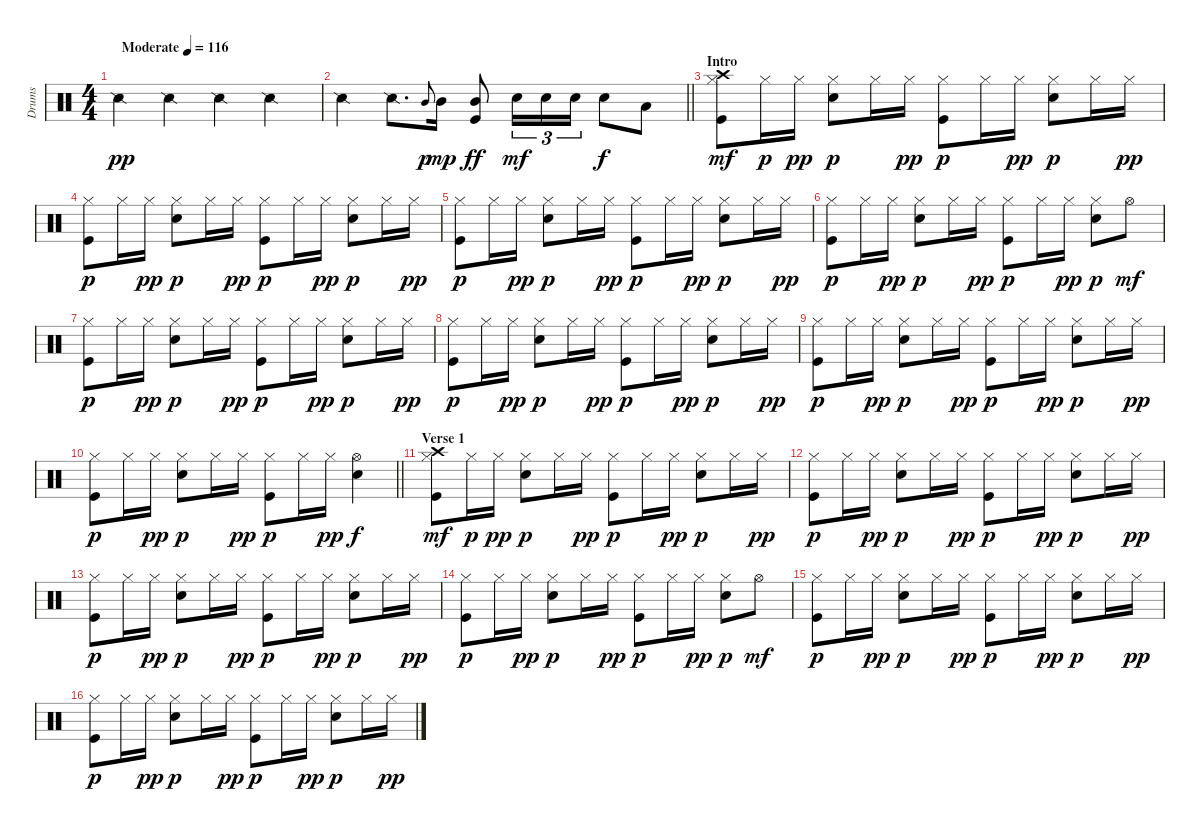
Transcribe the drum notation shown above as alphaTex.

\track ("Drums" "Drums") {instrument percussion}
\staff {score}
\articulation defaults
\ts (4 4)
\tempo (116 "Moderate")
\clef neutral
\ks c "Snare (side stick) 2".4{dy pp} "Snare (side stick) 2".4 "Snare (side stick) 2".4 "Snare (side stick) 2".4
|
\barLineRight lightlight "Snare (side stick) 2".4 "Snare (side stick) 2".8{d} "Mid Tom (hit)".8{gr onbeat dy p} "Mid Tom (hit)".16{dy mp}
("Mid Tom (hit)" "Kick (hit)").8{dy ff} "Snare (hit) 2".16{tu (3 2) dy mf} "Snare (hit) 2".16{tu (3 2)} "Snare (hit) 2".16{tu (3 2)} "Snare (hit) 2".8{dy f} "Low Tom (hit)".8 |
\section ("" "Intro")
("Hi-Hat (closed)" "Crash high (hit)" "Kick (hit)").8{dy mf} "Hi-Hat (closed)".16{dy p} "Hi-Hat (closed)".16{dy pp} ("Hi-Hat (closed)" "Snare (hit) 2").8{dy p} "Hi-Hat (closed)".16 "Hi-Hat (closed)".16{dy pp} ("Hi-Hat (closed)" "Kick (hit)").8{dy p} "Hi-Hat (closed)".16 "Hi-Hat (closed)".16{dy pp} ("Hi-Hat (closed)" "Snare (hit) 2").8{dy p} "Hi-Hat (closed)".16 "Hi-Hat (closed)".16{dy pp} |
("Hi-Hat (closed)" "Kick (hit)").8{dy p} "Hi-Hat (closed)".16 "Hi-Hat (closed)".16{dy pp} ("Hi-Hat (closed)" "Snare (hit) 2").8{dy p} "Hi-Hat (closed)".16 "Hi-Hat (closed)".16{dy pp} ("Hi-Hat (closed)" "Kick (hit)").8{dy p} "Hi-Hat (closed)".16 "Hi-Hat (closed)".16{dy pp} ("Hi-Hat (closed)" "Snare (hit) 2").8{dy p} "Hi-Hat (closed)".16 "Hi-Hat (closed)".16{dy pp} |
("Hi-Hat (closed)" "Kick (hit)").8{dy p} "Hi-Hat (closed)".16 "Hi-Hat (closed)".16{dy pp} ("Hi-Hat (closed)" "Snare (hit) 2").8{dy p} "Hi-Hat (closed)".16 "Hi-Hat (closed)".16{dy pp} ("Hi-Hat (closed)" "Kick (hit)").8{dy p} "Hi-Hat (closed)".16 "Hi-Hat (closed)".16{dy pp} ("Hi-Hat (closed)" "Snare (hit) 2").8{dy p} "Hi-Hat (closed)".16 "Hi-Hat (closed)".16{dy pp} |
("Hi-Hat (closed)" "Kick (hit)").8{dy p} "Hi-Hat (closed)".16 "Hi-Hat (closed)".16{dy pp} ("Hi-Hat (closed)" "Snare (hit) 2").8{dy p} "Hi-Hat (closed)".16 "Hi-Hat (closed)".16{dy pp} ("Hi-Hat (closed)" "Kick (hit)").8{dy p} "Hi-Hat (closed)".16 "Hi-Hat (closed)".16{dy pp} ("Hi-Hat (closed)" "Snare (hit) 2").8{dy p} "Hi-Hat (open)".8{dy mf} |
("Hi-Hat (closed)" "Kick (hit)").8{dy p} "Hi-Hat (closed)".16 "Hi-Hat (closed)".16{dy pp} ("Hi-Hat (closed)" "Snare (hit) 2").8{dy p} "Hi-Hat (closed)".16 "Hi-Hat (closed)".16{dy pp} ("Hi-Hat (closed)" "Kick (hit)").8{dy p} "Hi-Hat (closed)".16 "Hi-Hat (closed)".16{dy pp} ("Hi-Hat (closed)" "Snare (hit) 2").8{dy p} "Hi-Hat (closed)".16 "Hi-Hat (closed)".16{dy pp} |
("Hi-Hat (closed)" "Kick (hit)").8{dy p} "Hi-Hat (closed)".16 "Hi-Hat (closed)".16{dy pp} ("Hi-Hat (closed)" "Snare (hit) 2").8{dy p} "Hi-Hat (closed)".16 "Hi-Hat (closed)".16{dy pp} ("Hi-Hat (closed)" "Kick (hit)").8{dy p} "Hi-Hat (closed)".16 "Hi-Hat (closed)".16{dy pp} ("Hi-Hat (closed)" "Snare (hit) 2").8{dy p} "Hi-Hat (closed)".16 "Hi-Hat (closed)".16{dy pp} |
("Hi-Hat (closed)" "Kick (hit)").8{dy p} "Hi-Hat (closed)".16 "Hi-Hat (closed)".16{dy pp} ("Hi-Hat (closed)" "Snare (hit) 2").8{dy p} "Hi-Hat (closed)".16 "Hi-Hat (closed)".16{dy pp} ("Hi-Hat (closed)" "Kick (hit)").8{dy p} "Hi-Hat (closed)".16 "Hi-Hat (closed)".16{dy pp} ("Hi-Hat (closed)" "Snare (hit) 2").8{dy p} "Hi-Hat (closed)".16 "Hi-Hat (closed)".16{dy pp} |
\barLineRight lightlight
("Hi-Hat (closed)" "Kick (hit)").8{dy p} "Hi-Hat (closed)".16 "Hi-Hat (closed)".16{dy pp} ("Hi-Hat (closed)" "Snare (hit) 2").8{dy p} "Hi-Hat (closed)".16 "Hi-Hat (closed)".16{dy pp} ("Hi-Hat (closed)" "Kick (hit)").8{dy p} "Hi-Hat (closed)".16 "Hi-Hat (closed)".16{dy pp} ("Hi-Hat (open)" "Snare (hit) 2").4{dy f} |
\section ("" "Verse 1")
("Hi-Hat (closed)" "Crash high (hit)" "Kick (hit)").8{dy mf} "Hi-Hat (closed)".16{dy p} "Hi-Hat (closed)".16{dy pp} ("Hi-Hat (closed)" "Snare (hit) 2").8{dy p} "Hi-Hat (closed)".16 "Hi-Hat (closed)".16{dy pp} ("Hi-Hat (closed)" "Kick (hit)").8{dy p} "Hi-Hat (closed)".16 "Hi-Hat (closed)".16{dy pp} ("Hi-Hat (closed)" "Snare (hit) 2").8{dy p} "Hi-Hat (closed)".16 "Hi-Hat (closed)".16{dy pp} |
("Hi-Hat (closed)" "Kick (hit)").8{dy p} "Hi-Hat (closed)".16 "Hi-Hat (closed)".16{dy pp} ("Hi-Hat (closed)" "Snare (hit) 2").8{dy p} "Hi-Hat (closed)".16 "Hi-Hat (closed)".16{dy pp} ("Hi-Hat (closed)" "Kick (hit)").8{dy p} "Hi-Hat (closed)".16 "Hi-Hat (closed)".16{dy pp} ("Hi-Hat (closed)" "Snare (hit) 2").8{dy p} "Hi-Hat (closed)".16 "Hi-Hat (closed)".16{dy pp} |
("Hi-Hat (closed)" "Kick (hit)").8{dy p} "Hi-Hat (closed)".16 "Hi-Hat (closed)".16{dy pp} ("Hi-Hat (closed)" "Snare (hit) 2").8{dy p} "Hi-Hat (closed)".16 "Hi-Hat (closed)".16{dy pp} ("Hi-Hat (closed)" "Kick (hit)").8{dy p} "Hi-Hat (closed)".16 "Hi-Hat (closed)".16{dy pp} ("Hi-Hat (closed)" "Snare (hit) 2").8{dy p} "Hi-Hat (closed)".16 "Hi-Hat (closed)".16{dy pp} |
("Hi-Hat (closed)" "Kick (hit)").8{dy p} "Hi-Hat (closed)".16 "Hi-Hat (closed)".16{dy pp} ("Hi-Hat (closed)" "Snare (hit) 2").8{dy p} "Hi-Hat (closed)".16 "Hi-Hat (closed)".16{dy pp} ("Hi-Hat (closed)" "Kick (hit)").8{dy p} "Hi-Hat (closed)".16 "Hi-Hat (closed)".16{dy pp} ("Hi-Hat (closed)" "Snare (hit) 2").8{dy p} "Hi-Hat (open)".8{dy mf} |
("Hi-Hat (closed)" "Kick (hit)").8{dy p} "Hi-Hat (closed)".16 "Hi-Hat (closed)".16{dy pp} ("Hi-Hat (closed)" "Snare (hit) 2").8{dy p} "Hi-Hat (closed)".16 "Hi-Hat (closed)".16{dy pp} ("Hi-Hat (closed)" "Kick (hit)").8{dy p} "Hi-Hat (closed)".16 "Hi-Hat (closed)".16{dy pp} ("Hi-Hat (closed)" "Snare (hit) 2").8{dy p} "Hi-Hat (closed)".16 "Hi-Hat (closed)".16{dy pp} |
("Hi-Hat (closed)" "Kick (hit)").8{dy p} "Hi-Hat (closed)".16 "Hi-Hat (closed)".16{dy pp} ("Hi-Hat (closed)" "Snare (hit) 2").8{dy p} "Hi-Hat (closed)".16 "Hi-Hat (closed)".16{dy pp} ("Hi-Hat (closed)" "Kick (hit)").8{dy p} "Hi-Hat (closed)".16 "Hi-Hat (closed)".16{dy pp} ("Hi-Hat (closed)" "Snare (hit) 2").8{dy p} "Hi-Hat (closed)".16 "Hi-Hat (closed)".16{dy pp}
